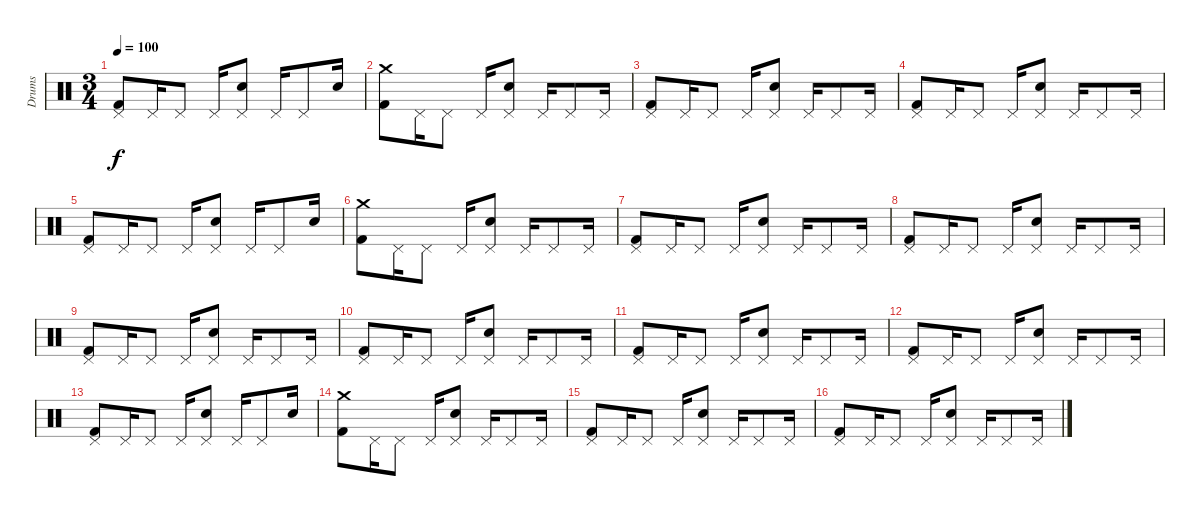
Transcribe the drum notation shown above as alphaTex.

\track ("Drums" "Drums") {instrument percussion}
\staff {score}
\articulation defaults
\ts (3 4)
\tempo 100
\clef neutral
\ks c
("Pedal Hi-Hat (hit)" "Kick (hit) 2").8{dy f} "Pedal Hi-Hat (hit)".16 "Pedal Hi-Hat (hit)".8 "Pedal Hi-Hat (hit)".16 ("Pedal Hi-Hat (hit)" "Snare (hit) 2").8 "Pedal Hi-Hat (hit)".16 "Pedal Hi-Hat (hit)".8 "Snare (hit) 2".16 |
("Crash medium (hit)" "Kick (hit) 2").8 "Pedal Hi-Hat (hit)".16 "Pedal Hi-Hat (hit)".8 "Pedal Hi-Hat (hit)".16 ("Pedal Hi-Hat (hit)" "Snare (hit) 2").8 "Pedal Hi-Hat (hit)".16 "Pedal Hi-Hat (hit)".8 "Pedal Hi-Hat (hit)".16 |
("Pedal Hi-Hat (hit)" "Kick (hit) 2").8 "Pedal Hi-Hat (hit)".16 "Pedal Hi-Hat (hit)".8 "Pedal Hi-Hat (hit)".16 ("Pedal Hi-Hat (hit)" "Snare (hit) 2").8 "Pedal Hi-Hat (hit)".16 "Pedal Hi-Hat (hit)".8 "Pedal Hi-Hat (hit)".16 |
("Pedal Hi-Hat (hit)" "Kick (hit) 2").8 "Pedal Hi-Hat (hit)".16 "Pedal Hi-Hat (hit)".8 "Pedal Hi-Hat (hit)".16 ("Pedal Hi-Hat (hit)" "Snare (hit) 2").8 "Pedal Hi-Hat (hit)".16 "Pedal Hi-Hat (hit)".8 "Pedal Hi-Hat (hit)".16 |
("Pedal Hi-Hat (hit)" "Kick (hit) 2").8 "Pedal Hi-Hat (hit)".16 "Pedal Hi-Hat (hit)".8 "Pedal Hi-Hat (hit)".16 ("Pedal Hi-Hat (hit)" "Snare (hit) 2").8 "Pedal Hi-Hat (hit)".16 "Pedal Hi-Hat (hit)".8 "Snare (hit) 2".16 |
("Crash medium (hit)" "Kick (hit) 2").8 "Pedal Hi-Hat (hit)".16 "Pedal Hi-Hat (hit)".8 "Pedal Hi-Hat (hit)".16 ("Pedal Hi-Hat (hit)" "Snare (hit) 2").8 "Pedal Hi-Hat (hit)".16 "Pedal Hi-Hat (hit)".8 "Pedal Hi-Hat (hit)".16 |
("Pedal Hi-Hat (hit)" "Kick (hit) 2").8 "Pedal Hi-Hat (hit)".16 "Pedal Hi-Hat (hit)".8 "Pedal Hi-Hat (hit)".16 ("Pedal Hi-Hat (hit)" "Snare (hit) 2").8 "Pedal Hi-Hat (hit)".16 "Pedal Hi-Hat (hit)".8 "Pedal Hi-Hat (hit)".16 |
("Pedal Hi-Hat (hit)" "Kick (hit) 2").8 "Pedal Hi-Hat (hit)".16 "Pedal Hi-Hat (hit)".8 "Pedal Hi-Hat (hit)".16 ("Pedal Hi-Hat (hit)" "Snare (hit) 2").8 "Pedal Hi-Hat (hit)".16 "Pedal Hi-Hat (hit)".8 "Pedal Hi-Hat (hit)".16 |
("Pedal Hi-Hat (hit)" "Kick (hit) 2").8 "Pedal Hi-Hat (hit)".16 "Pedal Hi-Hat (hit)".8 "Pedal Hi-Hat (hit)".16 ("Pedal Hi-Hat (hit)" "Snare (hit) 2").8 "Pedal Hi-Hat (hit)".16 "Pedal Hi-Hat (hit)".8 "Pedal Hi-Hat (hit)".16 |
("Pedal Hi-Hat (hit)" "Kick (hit) 2").8 "Pedal Hi-Hat (hit)".16 "Pedal Hi-Hat (hit)".8 "Pedal Hi-Hat (hit)".16 ("Pedal Hi-Hat (hit)" "Snare (hit) 2").8 "Pedal Hi-Hat (hit)".16 "Pedal Hi-Hat (hit)".8 "Pedal Hi-Hat (hit)".16 |
("Pedal Hi-Hat (hit)" "Kick (hit) 2").8 "Pedal Hi-Hat (hit)".16 "Pedal Hi-Hat (hit)".8 "Pedal Hi-Hat (hit)".16 ("Pedal Hi-Hat (hit)" "Snare (hit) 2").8 "Pedal Hi-Hat (hit)".16 "Pedal Hi-Hat (hit)".8 "Pedal Hi-Hat (hit)".16 |
("Pedal Hi-Hat (hit)" "Kick (hit) 2").8 "Pedal Hi-Hat (hit)".16 "Pedal Hi-Hat (hit)".8 "Pedal Hi-Hat (hit)".16 ("Pedal Hi-Hat (hit)" "Snare (hit) 2").8 "Pedal Hi-Hat (hit)".16 "Pedal Hi-Hat (hit)".8 "Pedal Hi-Hat (hit)".16 |
("Pedal Hi-Hat (hit)" "Kick (hit) 2").8 "Pedal Hi-Hat (hit)".16 "Pedal Hi-Hat (hit)".8 "Pedal Hi-Hat (hit)".16 ("Pedal Hi-Hat (hit)" "Snare (hit) 2").8 "Pedal Hi-Hat (hit)".16 "Pedal Hi-Hat (hit)".8 "Snare (hit) 2".16 |
("Crash medium (hit)" "Kick (hit) 2").8 "Pedal Hi-Hat (hit)".16 "Pedal Hi-Hat (hit)".8 "Pedal Hi-Hat (hit)".16 ("Pedal Hi-Hat (hit)" "Snare (hit) 2").8 "Pedal Hi-Hat (hit)".16 "Pedal Hi-Hat (hit)".8 "Pedal Hi-Hat (hit)".16 |
("Pedal Hi-Hat (hit)" "Kick (hit) 2").8 "Pedal Hi-Hat (hit)".16 "Pedal Hi-Hat (hit)".8 "Pedal Hi-Hat (hit)".16 ("Pedal Hi-Hat (hit)" "Snare (hit) 2").8 "Pedal Hi-Hat (hit)".16 "Pedal Hi-Hat (hit)".8 "Pedal Hi-Hat (hit)".16 |
("Pedal Hi-Hat (hit)" "Kick (hit) 2").8 "Pedal Hi-Hat (hit)".16 "Pedal Hi-Hat (hit)".8 "Pedal Hi-Hat (hit)".16 ("Pedal Hi-Hat (hit)" "Snare (hit) 2").8 "Pedal Hi-Hat (hit)".16 "Pedal Hi-Hat (hit)".8 "Pedal Hi-Hat (hit)".16
